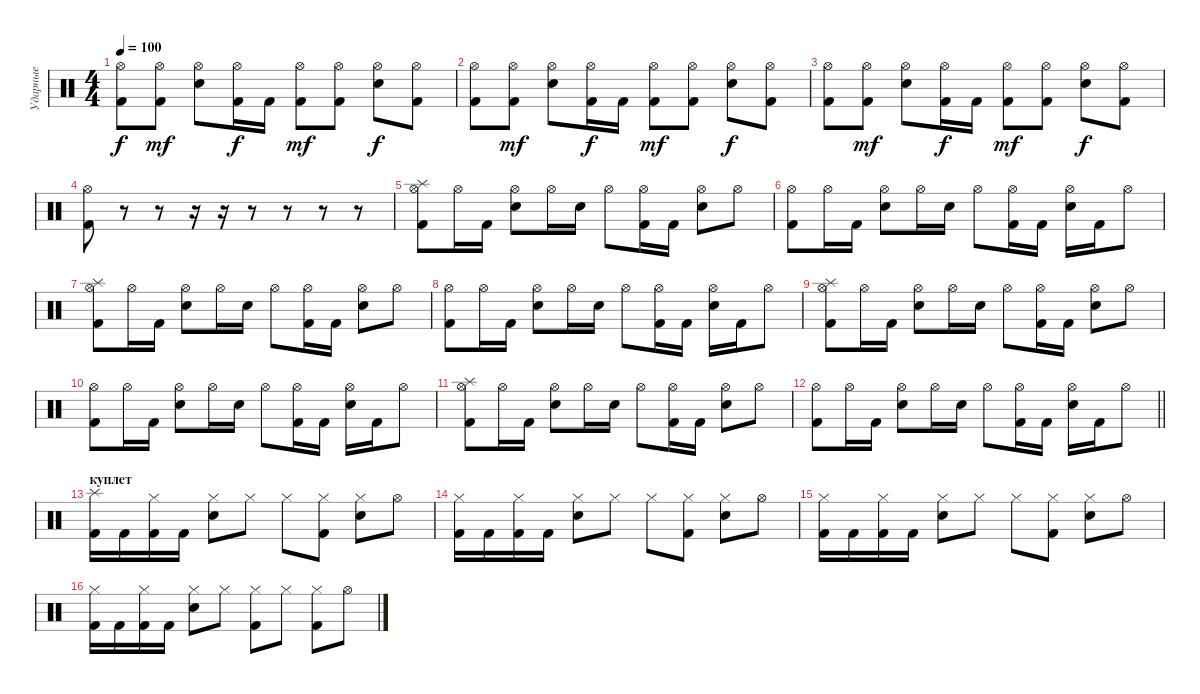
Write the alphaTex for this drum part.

\track ("Ударные" "Ударные") {instrument percussion}
\staff {score}
\articulation defaults
\ts (4 4)
\tempo 100
\clef neutral
\ks c
("Hi-Hat (open)" "Kick (hit) 2").8{dy f} ("Hi-Hat (open)" "Kick (hit) 2").8{dy mf} ("Hi-Hat (open)" "Electric Snare (hit)").8 ("Hi-Hat (open)" "Kick (hit) 2").16{dy f} "Kick (hit) 2".16 ("Hi-Hat (open)" "Kick (hit) 2").8{dy mf} ("Hi-Hat (open)" "Kick (hit) 2").8 ("Hi-Hat (open)" "Electric Snare (hit)").8{dy f} ("Hi-Hat (open)" "Kick (hit) 2").8 |
("Hi-Hat (open)" "Kick (hit) 2").8 ("Hi-Hat (open)" "Kick (hit) 2").8{dy mf} ("Hi-Hat (open)" "Electric Snare (hit)").8 ("Hi-Hat (open)" "Kick (hit) 2").16{dy f} "Kick (hit) 2".16 ("Hi-Hat (open)" "Kick (hit) 2").8{dy mf} ("Hi-Hat (open)" "Kick (hit) 2").8 ("Hi-Hat (open)" "Electric Snare (hit)").8{dy f} ("Hi-Hat (open)" "Kick (hit) 2").8 |
("Hi-Hat (open)" "Kick (hit) 2").8 ("Hi-Hat (open)" "Kick (hit) 2").8{dy mf} ("Hi-Hat (open)" "Electric Snare (hit)").8 ("Hi-Hat (open)" "Kick (hit) 2").16{dy f} "Kick (hit) 2".16 ("Hi-Hat (open)" "Kick (hit) 2").8{dy mf} ("Hi-Hat (open)" "Kick (hit) 2").8 ("Hi-Hat (open)" "Electric Snare (hit)").8{dy f} ("Hi-Hat (open)" "Kick (hit) 2").8 |
("Hi-Hat (open)" "Kick (hit) 2").8 r.8 r.8 r.16 r.16 r.8 r.8 r.8 r.8 |
("Hi-Hat (open)" "Splash (hit)" "Kick (hit) 2").8 "Hi-Hat (open)".16 "Kick (hit) 2".16 ("Hi-Hat (open)" "Snare (hit) 2").8 "Hi-Hat (open)".16 "Snare (hit) 2".16 "Hi-Hat (open)".8 ("Hi-Hat (open)" "Kick (hit) 2").16 "Kick (hit) 2".16 ("Hi-Hat (open)" "Snare (hit) 2").8 "Hi-Hat (open)".8 |
("Hi-Hat (open)" "Kick (hit) 2").8 "Hi-Hat (open)".16 "Kick (hit) 2".16 ("Hi-Hat (open)" "Snare (hit) 2").8 "Hi-Hat (open)".16 "Snare (hit) 2".16 "Hi-Hat (open)".8 ("Hi-Hat (open)" "Kick (hit) 2").16 "Kick (hit) 2".16 ("Hi-Hat (open)" "Snare (hit) 2").16 "Kick (hit) 2".16 "Hi-Hat (open)".8 |
("Hi-Hat (open)" "Splash (hit)" "Kick (hit) 2").8 "Hi-Hat (open)".16 "Kick (hit) 2".16 ("Hi-Hat (open)" "Snare (hit) 2").8 "Hi-Hat (open)".16 "Snare (hit) 2".16 "Hi-Hat (open)".8 ("Hi-Hat (open)" "Kick (hit) 2").16 "Kick (hit) 2".16 ("Hi-Hat (open)" "Snare (hit) 2").8 "Hi-Hat (open)".8 |
("Hi-Hat (open)" "Kick (hit) 2").8 "Hi-Hat (open)".16 "Kick (hit) 2".16 ("Hi-Hat (open)" "Snare (hit) 2").8 "Hi-Hat (open)".16 "Snare (hit) 2".16 "Hi-Hat (open)".8 ("Hi-Hat (open)" "Kick (hit) 2").16 "Kick (hit) 2".16 ("Hi-Hat (open)" "Snare (hit) 2").16 "Kick (hit) 2".16 "Hi-Hat (open)".8 |
("Hi-Hat (open)" "Splash (hit)" "Kick (hit) 2").8 "Hi-Hat (open)".16 "Kick (hit) 2".16 ("Hi-Hat (open)" "Snare (hit) 2").8 "Hi-Hat (open)".16 "Snare (hit) 2".16 "Hi-Hat (open)".8 ("Hi-Hat (open)" "Kick (hit) 2").16 "Kick (hit) 2".16 ("Hi-Hat (open)" "Snare (hit) 2").8 "Hi-Hat (open)".8 |
("Hi-Hat (open)" "Kick (hit) 2").8 "Hi-Hat (open)".16 "Kick (hit) 2".16 ("Hi-Hat (open)" "Snare (hit) 2").8 "Hi-Hat (open)".16 "Snare (hit) 2".16 "Hi-Hat (open)".8 ("Hi-Hat (open)" "Kick (hit) 2").16 "Kick (hit) 2".16 ("Hi-Hat (open)" "Snare (hit) 2").16 "Kick (hit) 2".16 "Hi-Hat (open)".8 |
("Hi-Hat (open)" "Splash (hit)" "Kick (hit) 2").8 "Hi-Hat (open)".16 "Kick (hit) 2".16 ("Hi-Hat (open)" "Snare (hit) 2").8 "Hi-Hat (open)".16 "Snare (hit) 2".16 "Hi-Hat (open)".8 ("Hi-Hat (open)" "Kick (hit) 2").16 "Kick (hit) 2".16 ("Hi-Hat (open)" "Snare (hit) 2").8 "Hi-Hat (open)".8 |
\barLineRight lightlight
("Hi-Hat (open)" "Kick (hit) 2").8 "Hi-Hat (open)".16 "Kick (hit) 2".16 ("Hi-Hat (open)" "Snare (hit) 2").8 "Hi-Hat (open)".16 "Snare (hit) 2".16 "Hi-Hat (open)".8 ("Hi-Hat (open)" "Kick (hit) 2").16 "Kick (hit) 2".16 ("Hi-Hat (open)" "Snare (hit) 2").16 "Kick (hit) 2".16 "Hi-Hat (open)".8 |
\section ("" "куплет")
("Splash (hit)" "Kick (hit) 2").16 "Kick (hit) 2".16 ("Hi-Hat (closed)" "Kick (hit) 2").16 "Kick (hit) 2".16 ("Hi-Hat (closed)" "Snare (hit) 2").8 "Hi-Hat (closed)".8 "Hi-Hat (closed)".8 ("Hi-Hat (closed)" "Kick (hit) 2").8 ("Hi-Hat (closed)" "Snare (hit) 2").8 "Hi-Hat (open)".8 |
("Hi-Hat (closed)" "Kick (hit) 2").16 "Kick (hit) 2".16 ("Hi-Hat (closed)" "Kick (hit) 2").16 "Kick (hit) 2".16 ("Hi-Hat (closed)" "Snare (hit) 2").8 "Hi-Hat (closed)".8 "Hi-Hat (closed)".8 ("Hi-Hat (closed)" "Kick (hit) 2").8 ("Hi-Hat (closed)" "Snare (hit) 2").8 "Hi-Hat (open)".8 |
("Hi-Hat (closed)" "Kick (hit) 2").16 "Kick (hit) 2".16 ("Hi-Hat (closed)" "Kick (hit) 2").16 "Kick (hit) 2".16 ("Hi-Hat (closed)" "Snare (hit) 2").8 "Hi-Hat (closed)".8 "Hi-Hat (closed)".8 ("Hi-Hat (closed)" "Kick (hit) 2").8 ("Hi-Hat (closed)" "Snare (hit) 2").8 "Hi-Hat (open)".8 |
("Hi-Hat (closed)" "Kick (hit) 2").16 "Kick (hit) 2".16 ("Hi-Hat (closed)" "Kick (hit) 2").16 "Kick (hit) 2".16 ("Hi-Hat (closed)" "Snare (hit) 2").8 "Hi-Hat (closed)".8 ("Hi-Hat (closed)" "Kick (hit) 2").8 "Hi-Hat (closed)".8 ("Hi-Hat (closed)" "Kick (hit) 2").8 "Hi-Hat (open)".8
